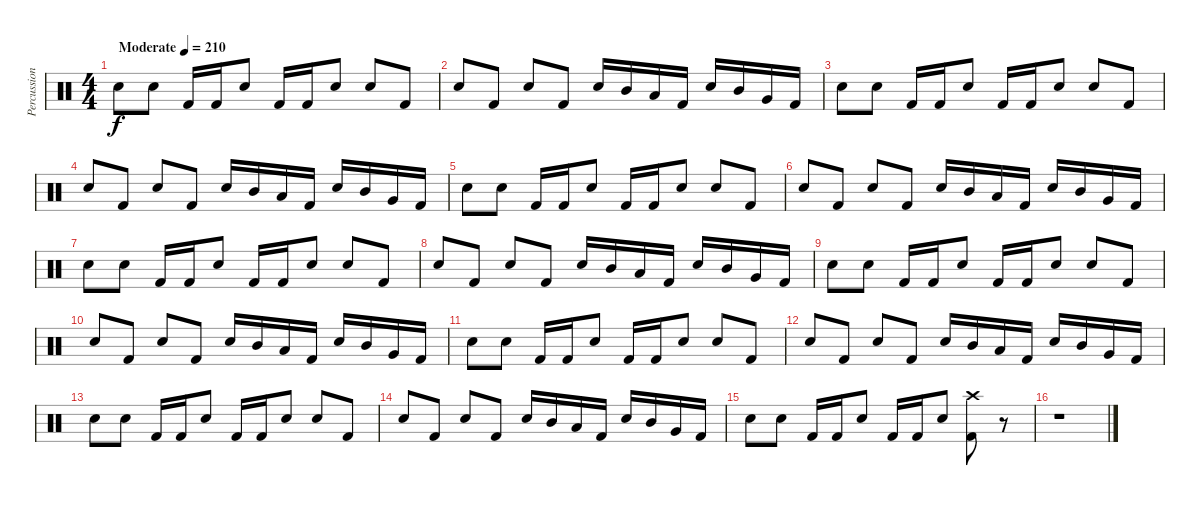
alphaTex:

\track ("Percussions" "Percussion") {instrument percussion}
\staff {score}
\articulation defaults
\ts (4 4)
\tempo (210 "Moderate")
\clef neutral
\ks c "Electric Snare (hit)".8{dy f} "Electric Snare (hit)".8 "Kick (hit) 2".16 "Kick (hit) 2".16 "Electric Snare (hit)".8 "Kick (hit) 2".16 "Kick (hit) 2".16 "Electric Snare (hit)".8 "Electric Snare (hit)".8 "Kick (hit) 2".8
|
"Electric Snare (hit)".8 "Kick (hit) 2".8 "Electric Snare (hit)".8 "Kick (hit) 2".8 "Electric Snare (hit)".16 "Mid Tom (hit)".16 "Low Tom (hit)".16 "Kick (hit) 2".16 "Electric Snare (hit)".16 "Mid Tom (hit)".16 "Very Low Tom (hit)".16 "Kick (hit) 2".16 |
"Electric Snare (hit)".8 "Electric Snare (hit)".8 "Kick (hit) 2".16 "Kick (hit) 2".16 "Electric Snare (hit)".8 "Kick (hit) 2".16 "Kick (hit) 2".16 "Electric Snare (hit)".8 "Electric Snare (hit)".8 "Kick (hit) 2".8 |
"Electric Snare (hit)".8 "Kick (hit) 2".8 "Electric Snare (hit)".8 "Kick (hit) 2".8 "Electric Snare (hit)".16 "Mid Tom (hit)".16 "Low Tom (hit)".16 "Kick (hit) 2".16 "Electric Snare (hit)".16 "Mid Tom (hit)".16 "Very Low Tom (hit)".16 "Kick (hit) 2".16 |
"Electric Snare (hit)".8 "Electric Snare (hit)".8 "Kick (hit) 2".16 "Kick (hit) 2".16 "Electric Snare (hit)".8 "Kick (hit) 2".16 "Kick (hit) 2".16 "Electric Snare (hit)".8 "Electric Snare (hit)".8 "Kick (hit) 2".8 |
"Electric Snare (hit)".8 "Kick (hit) 2".8 "Electric Snare (hit)".8 "Kick (hit) 2".8 "Electric Snare (hit)".16 "Mid Tom (hit)".16 "Low Tom (hit)".16 "Kick (hit) 2".16 "Electric Snare (hit)".16 "Mid Tom (hit)".16 "Very Low Tom (hit)".16 "Kick (hit) 2".16 |
"Electric Snare (hit)".8 "Electric Snare (hit)".8 "Kick (hit) 2".16 "Kick (hit) 2".16 "Electric Snare (hit)".8 "Kick (hit) 2".16 "Kick (hit) 2".16 "Electric Snare (hit)".8 "Electric Snare (hit)".8 "Kick (hit) 2".8 |
"Electric Snare (hit)".8 "Kick (hit) 2".8 "Electric Snare (hit)".8 "Kick (hit) 2".8 "Electric Snare (hit)".16 "Mid Tom (hit)".16 "Low Tom (hit)".16 "Kick (hit) 2".16 "Electric Snare (hit)".16 "Mid Tom (hit)".16 "Very Low Tom (hit)".16 "Kick (hit) 2".16 |
"Electric Snare (hit)".8 "Electric Snare (hit)".8 "Kick (hit) 2".16 "Kick (hit) 2".16 "Electric Snare (hit)".8 "Kick (hit) 2".16 "Kick (hit) 2".16 "Electric Snare (hit)".8 "Electric Snare (hit)".8 "Kick (hit) 2".8 |
"Electric Snare (hit)".8 "Kick (hit) 2".8 "Electric Snare (hit)".8 "Kick (hit) 2".8 "Electric Snare (hit)".16 "Mid Tom (hit)".16 "Low Tom (hit)".16 "Kick (hit) 2".16 "Electric Snare (hit)".16 "Mid Tom (hit)".16 "Very Low Tom (hit)".16 "Kick (hit) 2".16 |
"Electric Snare (hit)".8 "Electric Snare (hit)".8 "Kick (hit) 2".16 "Kick (hit) 2".16 "Electric Snare (hit)".8 "Kick (hit) 2".16 "Kick (hit) 2".16 "Electric Snare (hit)".8 "Electric Snare (hit)".8 "Kick (hit) 2".8 |
"Electric Snare (hit)".8 "Kick (hit) 2".8 "Electric Snare (hit)".8 "Kick (hit) 2".8 "Electric Snare (hit)".16 "Mid Tom (hit)".16 "Low Tom (hit)".16 "Kick (hit) 2".16 "Electric Snare (hit)".16 "Mid Tom (hit)".16 "Very Low Tom (hit)".16 "Kick (hit) 2".16 |
"Electric Snare (hit)".8 "Electric Snare (hit)".8 "Kick (hit) 2".16 "Kick (hit) 2".16 "Electric Snare (hit)".8 "Kick (hit) 2".16 "Kick (hit) 2".16 "Electric Snare (hit)".8 "Electric Snare (hit)".8 "Kick (hit) 2".8 |
"Electric Snare (hit)".8 "Kick (hit) 2".8 "Electric Snare (hit)".8 "Kick (hit) 2".8 "Electric Snare (hit)".16 "Mid Tom (hit)".16 "Low Tom (hit)".16 "Kick (hit) 2".16 "Electric Snare (hit)".16 "Mid Tom (hit)".16 "Very Low Tom (hit)".16 "Kick (hit) 2".16 |
"Electric Snare (hit)".8 "Electric Snare (hit)".8 "Kick (hit) 2".16 "Kick (hit) 2".16 "Electric Snare (hit)".8 "Kick (hit) 2".16 "Kick (hit) 2".16 "Electric Snare (hit)".8 ("Kick (hit) 2" "Crash high (hit)").8 r.8 |
r.1
